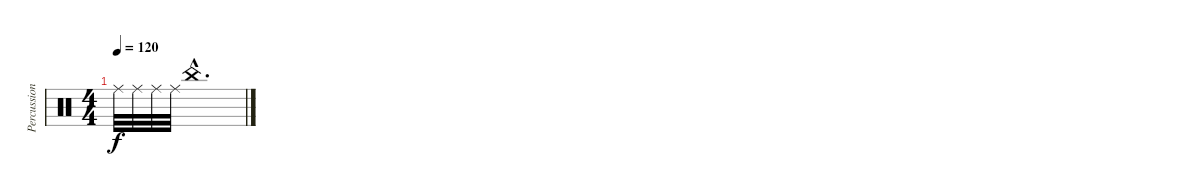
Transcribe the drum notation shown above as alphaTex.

\track ("Percussion" "Percussion") {instrument percussion}
\staff {score}
\articulation defaults
\ts (4 4)
\tempo 120
\clef neutral
\ks c "Ride (middle)".32{dy f} "Ride (middle)".32 "Ride (middle)".32 "Ride (middle)".32 "China (hit)"{hac}.1{d}
